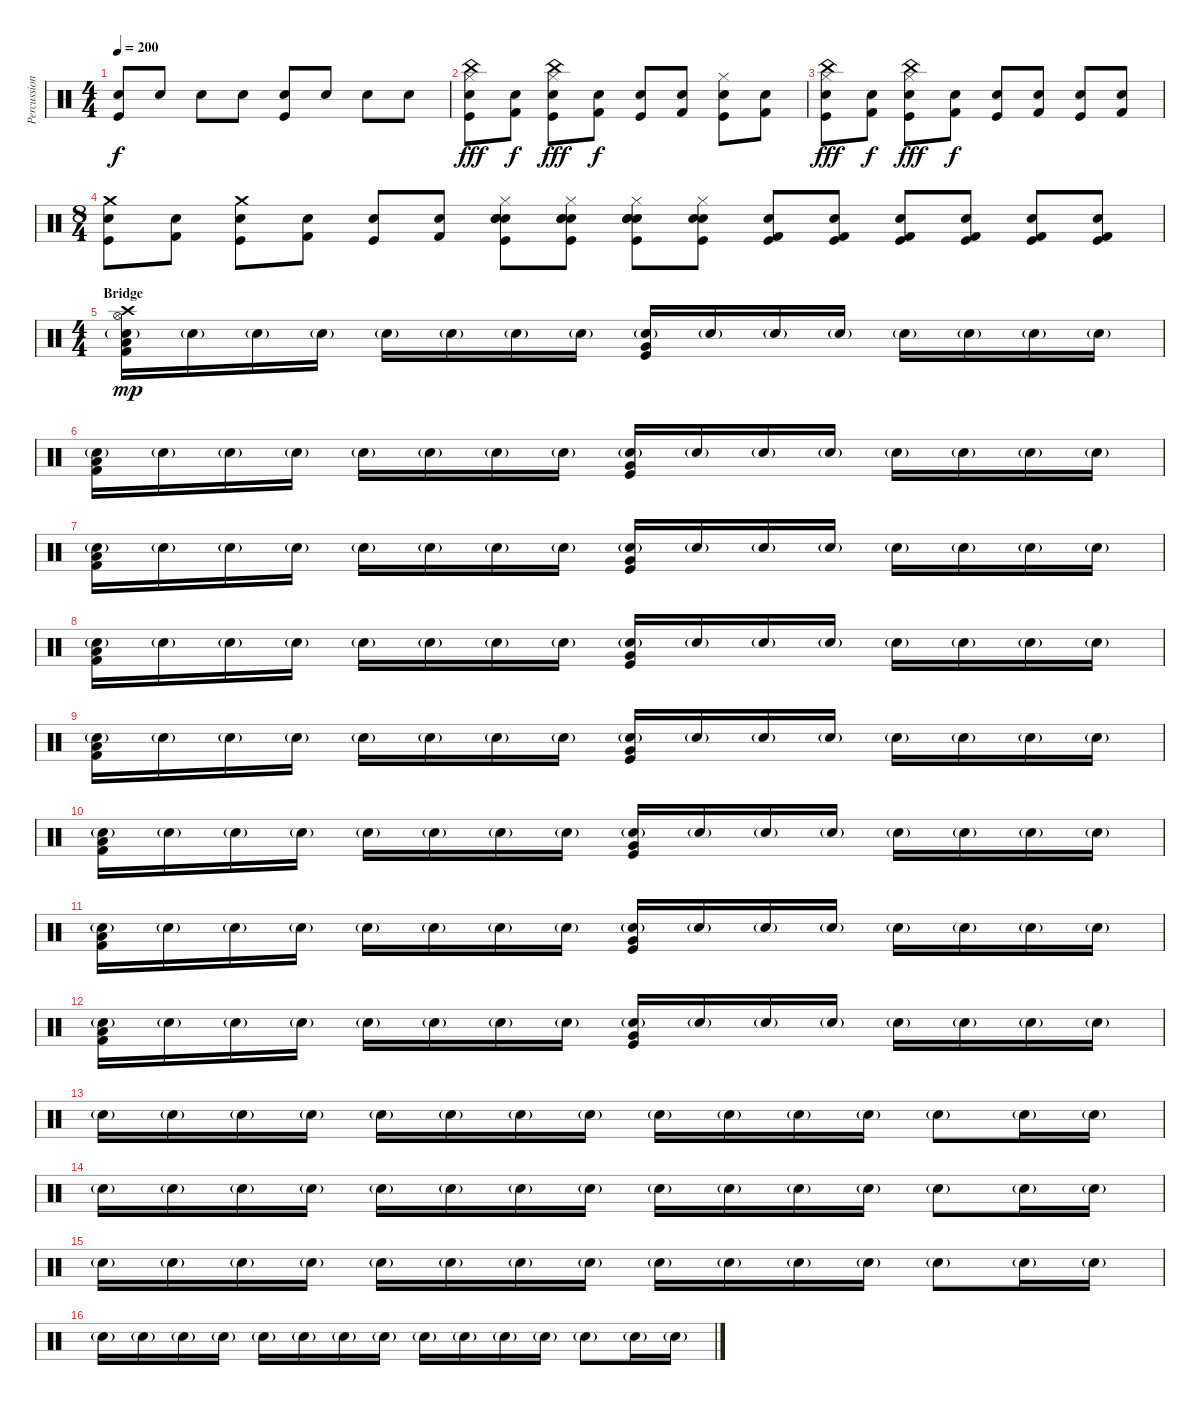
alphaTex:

\track ("Percussion" "Percussion") {instrument percussion}
\staff {score}
\articulation defaults
\ts (4 4)
\tempo 200
\clef neutral
\ks c
("Snare (hit) 2" "Kick (hit)").8{dy f} "Snare (hit) 2".8 "Electric Snare (hit)".8 "Snare (hit) 2".8 ("Snare (hit) 2" "Kick (hit)").8 "Snare (hit) 2".8 "Electric Snare (hit)".8 "Snare (hit) 2".8 |
("Snare (hit) 2" "Kick (hit)" "China (hit)" "Hi-Hat (closed)").8{dy fff} ("Electric Snare (hit)" "Kick (hit) 2").8{dy f} ("Snare (hit) 2" "Kick (hit)" "China (hit)" "Hi-Hat (closed)").8{dy fff} ("Electric Snare (hit)" "Kick (hit) 2").8{dy f} ("Snare (hit) 2" "Kick (hit)").8 ("Electric Snare (hit)" "Kick (hit) 2").8 ("Snare (hit) 2" "Kick (hit)" "Hi-Hat (closed)").8 ("Electric Snare (hit)" "Kick (hit) 2").8 |
("Snare (hit) 2" "Kick (hit)" "China (hit)" "Hi-Hat (closed)").8{dy fff} ("Electric Snare (hit)" "Kick (hit) 2").8{dy f} ("Snare (hit) 2" "Kick (hit)" "China (hit)" "Hi-Hat (closed)").8{dy fff} ("Electric Snare (hit)" "Kick (hit) 2").8{dy f} ("Snare (hit) 2" "Kick (hit)").8 ("Electric Snare (hit)" "Kick (hit) 2").8 ("Snare (hit) 2" "Kick (hit)").8 ("Electric Snare (hit)" "Kick (hit) 2").8 |
\ts (8 4)
("Snare (hit) 2" "Kick (hit)" "Crash medium (hit)").8 ("Electric Snare (hit)" "Kick (hit) 2").8 ("Snare (hit) 2" "Kick (hit)" "Crash medium (hit)").8 ("Electric Snare (hit)" "Kick (hit) 2").8 ("Snare (hit) 2" "Kick (hit)").8 ("Electric Snare (hit)" "Kick (hit) 2").8 ("Snare (hit) 2" "Snare (hit) 2" "Electric Snare (hit)" "Kick (hit)" "Hi-Hat (closed)").8 ("Snare (hit) 2" "Snare (hit) 2" "Electric Snare (hit)" "Kick (hit)" "Hi-Hat (closed)").8 ("Snare (hit) 2" "Snare (hit) 2" "Electric Snare (hit)" "Kick (hit)" "Hi-Hat (closed)").8 ("Snare (hit) 2" "Electric Snare (hit)" "Kick (hit)" "Hi-Hat (closed)").8 ("Kick (hit) 2" "Kick (hit)" "Electric Snare (hit)").8 ("Kick (hit) 2" "Kick (hit)" "Electric Snare (hit)").8 ("Kick (hit) 2" "Kick (hit)" "Electric Snare (hit)").8 ("Kick (hit) 2" "Kick (hit)" "Electric Snare (hit)").8 ("Kick (hit) 2" "Kick (hit)" "Electric Snare (hit)").8 ("Kick (hit) 2" "Kick (hit)" "Electric Snare (hit)").8 |
\ts (4 4)
\section ("" "Bridge")
("Crash high (hit)" "Low Floor Tom (hit)" "Kick (hit) 2" "Snare (hit) 2"{g} "Hi-Hat (open)").16{dy mp} "Electric Snare (hit)"{g}.16 "Snare (hit) 2"{g}.16 "Electric Snare (hit)"{g}.16 "Snare (hit) 2"{g}.16 "Electric Snare (hit)"{g}.16 "Snare (hit) 2"{g}.16 "Electric Snare (hit)"{g}.16 ("Very Low Tom (hit)" "Kick (hit)" "Snare (hit) 2"{g}).16 "Electric Snare (hit)"{g}.16 "Snare (hit) 2"{g}.16 "Electric Snare (hit)"{g}.16 "Electric Snare (hit)"{g}.16 "Snare (hit) 2"{g}.16 "Electric Snare (hit)"{g}.16 "Snare (hit) 2"{g}.16 |
("Low Floor Tom (hit)" "Kick (hit) 2" "Snare (hit) 2"{g}).16 "Electric Snare (hit)"{g}.16 "Snare (hit) 2"{g}.16 "Electric Snare (hit)"{g}.16 "Snare (hit) 2"{g}.16 "Electric Snare (hit)"{g}.16 "Snare (hit) 2"{g}.16 "Electric Snare (hit)"{g}.16 ("Very Low Tom (hit)" "Kick (hit)" "Snare (hit) 2"{g}).16 "Electric Snare (hit)"{g}.16 "Snare (hit) 2"{g}.16 "Electric Snare (hit)"{g}.16 "Electric Snare (hit)"{g}.16 "Snare (hit) 2"{g}.16 "Electric Snare (hit)"{g}.16 "Snare (hit) 2"{g}.16 |
("Low Floor Tom (hit)" "Kick (hit) 2" "Snare (hit) 2"{g}).16 "Electric Snare (hit)"{g}.16 "Snare (hit) 2"{g}.16 "Electric Snare (hit)"{g}.16 "Snare (hit) 2"{g}.16 "Electric Snare (hit)"{g}.16 "Snare (hit) 2"{g}.16 "Electric Snare (hit)"{g}.16 ("Very Low Tom (hit)" "Kick (hit)" "Snare (hit) 2"{g}).16 "Electric Snare (hit)"{g}.16 "Snare (hit) 2"{g}.16 "Electric Snare (hit)"{g}.16 "Electric Snare (hit)"{g}.16 "Snare (hit) 2"{g}.16 "Electric Snare (hit)"{g}.16 "Snare (hit) 2"{g}.16 |
("Low Floor Tom (hit)" "Kick (hit) 2" "Snare (hit) 2"{g}).16 "Electric Snare (hit)"{g}.16 "Snare (hit) 2"{g}.16 "Electric Snare (hit)"{g}.16 "Snare (hit) 2"{g}.16 "Electric Snare (hit)"{g}.16 "Snare (hit) 2"{g}.16 "Electric Snare (hit)"{g}.16 ("Very Low Tom (hit)" "Kick (hit)" "Snare (hit) 2"{g}).16 "Electric Snare (hit)"{g}.16 "Snare (hit) 2"{g}.16 "Electric Snare (hit)"{g}.16 "Electric Snare (hit)"{g}.16 "Snare (hit) 2"{g}.16 "Electric Snare (hit)"{g}.16 "Snare (hit) 2"{g}.16 |
("Low Floor Tom (hit)" "Kick (hit) 2" "Snare (hit) 2"{g}).16 "Electric Snare (hit)"{g}.16 "Snare (hit) 2"{g}.16 "Electric Snare (hit)"{g}.16 "Snare (hit) 2"{g}.16 "Electric Snare (hit)"{g}.16 "Snare (hit) 2"{g}.16 "Electric Snare (hit)"{g}.16 ("Very Low Tom (hit)" "Kick (hit)" "Snare (hit) 2"{g}).16 "Electric Snare (hit)"{g}.16 "Snare (hit) 2"{g}.16 "Electric Snare (hit)"{g}.16 "Electric Snare (hit)"{g}.16 "Snare (hit) 2"{g}.16 "Electric Snare (hit)"{g}.16 "Snare (hit) 2"{g}.16 |
("Low Floor Tom (hit)" "Kick (hit) 2" "Snare (hit) 2"{g}).16 "Electric Snare (hit)"{g}.16 "Snare (hit) 2"{g}.16 "Electric Snare (hit)"{g}.16 "Snare (hit) 2"{g}.16 "Electric Snare (hit)"{g}.16 "Snare (hit) 2"{g}.16 "Electric Snare (hit)"{g}.16 ("Very Low Tom (hit)" "Kick (hit)" "Snare (hit) 2"{g}).16 "Electric Snare (hit)"{g}.16 "Snare (hit) 2"{g}.16 "Electric Snare (hit)"{g}.16 "Electric Snare (hit)"{g}.16 "Snare (hit) 2"{g}.16 "Electric Snare (hit)"{g}.16 "Snare (hit) 2"{g}.16 |
("Low Floor Tom (hit)" "Kick (hit) 2" "Snare (hit) 2"{g}).16 "Electric Snare (hit)"{g}.16 "Snare (hit) 2"{g}.16 "Electric Snare (hit)"{g}.16 "Snare (hit) 2"{g}.16 "Electric Snare (hit)"{g}.16 "Snare (hit) 2"{g}.16 "Electric Snare (hit)"{g}.16 ("Very Low Tom (hit)" "Kick (hit)" "Snare (hit) 2"{g}).16 "Electric Snare (hit)"{g}.16 "Snare (hit) 2"{g}.16 "Electric Snare (hit)"{g}.16 "Electric Snare (hit)"{g}.16 "Snare (hit) 2"{g}.16 "Electric Snare (hit)"{g}.16 "Snare (hit) 2"{g}.16 |
("Low Floor Tom (hit)" "Kick (hit) 2" "Snare (hit) 2"{g}).16 "Electric Snare (hit)"{g}.16 "Snare (hit) 2"{g}.16 "Electric Snare (hit)"{g}.16 "Snare (hit) 2"{g}.16 "Electric Snare (hit)"{g}.16 "Snare (hit) 2"{g}.16 "Electric Snare (hit)"{g}.16 ("Very Low Tom (hit)" "Kick (hit)" "Snare (hit) 2"{g}).16 "Electric Snare (hit)"{g}.16 "Snare (hit) 2"{g}.16 "Electric Snare (hit)"{g}.16 "Electric Snare (hit)"{g}.16 "Snare (hit) 2"{g}.16 "Electric Snare (hit)"{g}.16 "Snare (hit) 2"{g}.16 |
"Snare (hit) 2"{g}.16 "Electric Snare (hit)"{g}.16 "Snare (hit) 2"{g}.16 "Electric Snare (hit)"{g}.16 "Snare (hit) 2"{g}.16 "Electric Snare (hit)"{g}.16 "Snare (hit) 2"{g}.16 "Electric Snare (hit)"{g}.16 "Snare (hit) 2"{g}.16 "Electric Snare (hit)"{g}.16 "Snare (hit) 2"{g}.16 "Electric Snare (hit)"{g}.16 "Electric Snare (hit)"{g}.8 "Snare (hit) 2"{g}.16 "Snare (hit) 2"{g}.16 |
"Snare (hit) 2"{g}.16 "Electric Snare (hit)"{g}.16 "Snare (hit) 2"{g}.16 "Electric Snare (hit)"{g}.16 "Snare (hit) 2"{g}.16 "Electric Snare (hit)"{g}.16 "Snare (hit) 2"{g}.16 "Electric Snare (hit)"{g}.16 "Snare (hit) 2"{g}.16 "Electric Snare (hit)"{g}.16 "Snare (hit) 2"{g}.16 "Electric Snare (hit)"{g}.16 "Electric Snare (hit)"{g}.8 "Snare (hit) 2"{g}.16 "Snare (hit) 2"{g}.16 |
"Snare (hit) 2"{g}.16 "Electric Snare (hit)"{g}.16 "Snare (hit) 2"{g}.16 "Electric Snare (hit)"{g}.16 "Snare (hit) 2"{g}.16 "Electric Snare (hit)"{g}.16 "Snare (hit) 2"{g}.16 "Electric Snare (hit)"{g}.16 "Snare (hit) 2"{g}.16 "Electric Snare (hit)"{g}.16 "Snare (hit) 2"{g}.16 "Electric Snare (hit)"{g}.16 "Electric Snare (hit)"{g}.8 "Snare (hit) 2"{g}.16 "Snare (hit) 2"{g}.16 |
"Snare (hit) 2"{g}.16 "Electric Snare (hit)"{g}.16 "Snare (hit) 2"{g}.16 "Electric Snare (hit)"{g}.16 "Snare (hit) 2"{g}.16 "Electric Snare (hit)"{g}.16 "Snare (hit) 2"{g}.16 "Electric Snare (hit)"{g}.16 "Snare (hit) 2"{g}.16 "Electric Snare (hit)"{g}.16 "Snare (hit) 2"{g}.16 "Electric Snare (hit)"{g}.16 "Electric Snare (hit)"{g}.8 "Snare (hit) 2"{g}.16 "Snare (hit) 2"{g}.16
